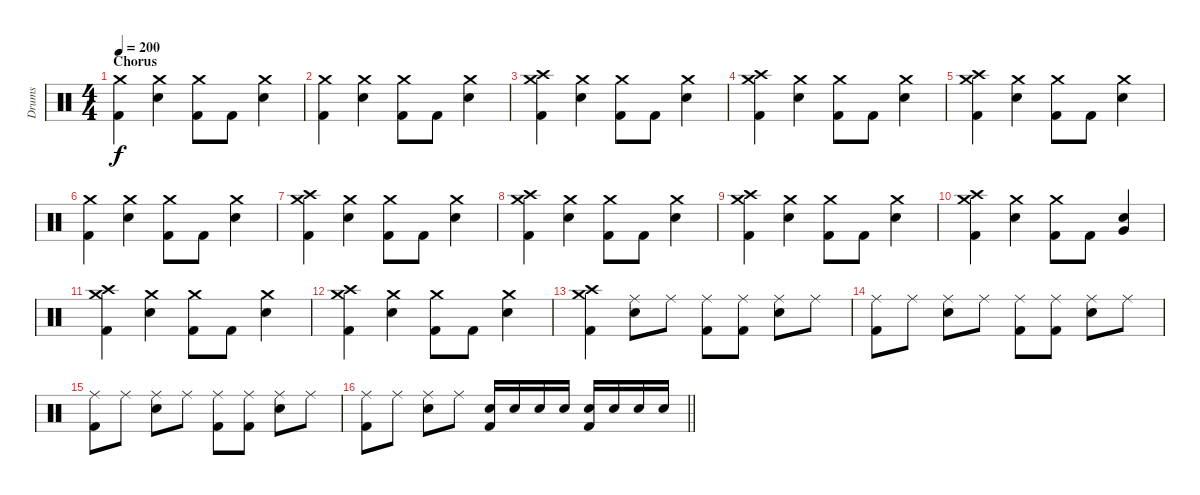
\track ("Drums" "Drums") {instrument percussion}
\staff {score}
\articulation defaults
\ts (4 4)
\section ("" "Chorus")
\tempo 200
\clef neutral
\ks c
("Crash medium (hit)" "Kick (hit) 2").4{dy f} ("Crash medium (hit)" "Electric Snare (hit)").4 ("Crash medium (hit)" "Kick (hit) 2").8 "Kick (hit) 2".8 ("Crash medium (hit)" "Electric Snare (hit)").4 |
("Crash medium (hit)" "Kick (hit) 2").4 ("Crash medium (hit)" "Electric Snare (hit)").4 ("Crash medium (hit)" "Kick (hit) 2").8 "Kick (hit) 2".8 ("Crash medium (hit)" "Electric Snare (hit)").4 |
("Crash medium (hit)" "Crash high (hit)" "Kick (hit) 2").4 ("Crash medium (hit)" "Electric Snare (hit)").4 ("Crash medium (hit)" "Kick (hit) 2").8 "Kick (hit) 2".8 ("Crash medium (hit)" "Electric Snare (hit)").4 |
("Crash medium (hit)" "Crash high (hit)" "Kick (hit) 2").4 ("Crash medium (hit)" "Electric Snare (hit)").4 ("Crash medium (hit)" "Kick (hit) 2").8 "Kick (hit) 2".8 ("Crash medium (hit)" "Electric Snare (hit)").4 |
("Crash medium (hit)" "Crash high (hit)" "Kick (hit) 2").4 ("Crash medium (hit)" "Electric Snare (hit)").4 ("Crash medium (hit)" "Kick (hit) 2").8 "Kick (hit) 2".8 ("Crash medium (hit)" "Electric Snare (hit)").4 |
("Crash medium (hit)" "Kick (hit) 2").4 ("Crash medium (hit)" "Electric Snare (hit)").4 ("Crash medium (hit)" "Kick (hit) 2").8 "Kick (hit) 2".8 ("Crash medium (hit)" "Electric Snare (hit)").4 |
("Crash medium (hit)" "Crash high (hit)" "Kick (hit) 2").4 ("Crash medium (hit)" "Electric Snare (hit)").4 ("Crash medium (hit)" "Kick (hit) 2").8 "Kick (hit) 2".8 ("Crash medium (hit)" "Electric Snare (hit)").4 |
("Crash medium (hit)" "Crash high (hit)" "Kick (hit) 2").4 ("Crash medium (hit)" "Electric Snare (hit)").4 ("Crash medium (hit)" "Kick (hit) 2").8 "Kick (hit) 2".8 ("Crash medium (hit)" "Electric Snare (hit)").4 |
("Crash medium (hit)" "Crash high (hit)" "Kick (hit) 2").4 ("Crash medium (hit)" "Electric Snare (hit)").4 ("Crash medium (hit)" "Kick (hit) 2").8 "Kick (hit) 2".8 ("Crash medium (hit)" "Electric Snare (hit)").4 |
("Crash medium (hit)" "Crash high (hit)" "Kick (hit) 2").4 ("Crash medium (hit)" "Electric Snare (hit)").4 ("Crash medium (hit)" "Kick (hit) 2").8 "Kick (hit) 2".8 ("Very Low Tom (hit)" "Electric Snare (hit)").4 |
("Crash medium (hit)" "Crash high (hit)" "Kick (hit) 2").4 ("Crash medium (hit)" "Electric Snare (hit)").4 ("Crash medium (hit)" "Kick (hit) 2").8 "Kick (hit) 2".8 ("Crash medium (hit)" "Electric Snare (hit)").4 |
("Crash medium (hit)" "Crash high (hit)" "Kick (hit) 2").4 ("Crash medium (hit)" "Electric Snare (hit)").4 ("Crash medium (hit)" "Kick (hit) 2").8 "Kick (hit) 2".8 ("Crash medium (hit)" "Electric Snare (hit)").4 |
("Crash medium (hit)" "Crash high (hit)" "Kick (hit) 2").4 ("Ride (middle)" "Electric Snare (hit)").8 "Ride (middle)".8 ("Ride (middle)" "Kick (hit) 2").8 ("Ride (middle)" "Kick (hit) 2").8 ("Ride (middle)" "Electric Snare (hit)").8 "Ride (middle)".8 |
("Ride (middle)" "Kick (hit) 2").8 "Ride (middle)".8 ("Ride (middle)" "Electric Snare (hit)").8 "Ride (middle)".8 ("Ride (middle)" "Kick (hit) 2").8 ("Ride (middle)" "Kick (hit) 2").8 ("Ride (middle)" "Electric Snare (hit)").8 "Ride (middle)".8 |
("Ride (middle)" "Kick (hit) 2").8 "Ride (middle)".8 ("Ride (middle)" "Electric Snare (hit)").8 "Ride (middle)".8 ("Ride (middle)" "Kick (hit) 2").8 ("Ride (middle)" "Kick (hit) 2").8 ("Ride (middle)" "Electric Snare (hit)").8 "Ride (middle)".8 |
\barLineRight lightlight
("Ride (middle)" "Kick (hit) 2").8 "Ride (middle)".8 ("Ride (middle)" "Electric Snare (hit)").8 "Ride (middle)".8 ("Electric Snare (hit)" "Kick (hit) 2").16 "Electric Snare (hit)".16 "Electric Snare (hit)".16 "Electric Snare (hit)".16 ("Electric Snare (hit)" "Kick (hit) 2").16 "Electric Snare (hit)".16 "Electric Snare (hit)".16 "Electric Snare (hit)".16
